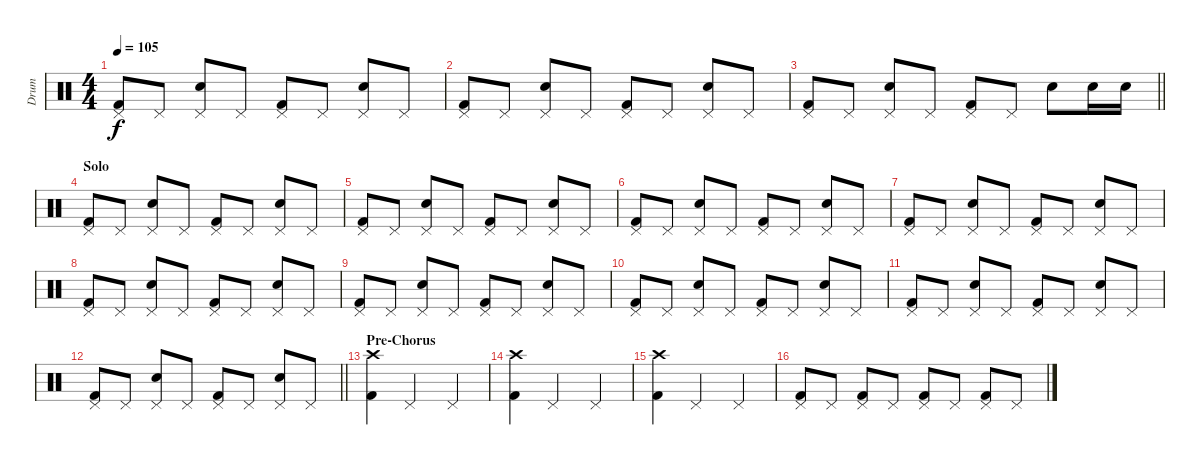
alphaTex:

\track ("Drum" "Drum") {instrument percussion}
\staff {score}
\articulation defaults
\ts (4 4)
\tempo 105
\clef neutral
\ks c
("Kick (hit) 2" "Pedal Hi-Hat (hit)").8{dy f} "Pedal Hi-Hat (hit)".8 ("Electric Snare (hit)" "Pedal Hi-Hat (hit)").8 "Pedal Hi-Hat (hit)".8 ("Kick (hit) 2" "Pedal Hi-Hat (hit)").8 "Pedal Hi-Hat (hit)".8 ("Electric Snare (hit)" "Pedal Hi-Hat (hit)").8 "Pedal Hi-Hat (hit)".8 |
("Kick (hit) 2" "Pedal Hi-Hat (hit)").8 "Pedal Hi-Hat (hit)".8 ("Electric Snare (hit)" "Pedal Hi-Hat (hit)").8 "Pedal Hi-Hat (hit)".8 ("Kick (hit) 2" "Pedal Hi-Hat (hit)").8 "Pedal Hi-Hat (hit)".8 ("Electric Snare (hit)" "Pedal Hi-Hat (hit)").8 "Pedal Hi-Hat (hit)".8 |
\barLineRight lightlight
("Kick (hit) 2" "Pedal Hi-Hat (hit)").8 "Pedal Hi-Hat (hit)".8 ("Electric Snare (hit)" "Pedal Hi-Hat (hit)").8 "Pedal Hi-Hat (hit)".8 ("Kick (hit) 2" "Pedal Hi-Hat (hit)").8 "Pedal Hi-Hat (hit)".8 "Electric Snare (hit)".8 "Electric Snare (hit)".16 "Electric Snare (hit)".16 |
\section ("" "Solo")
("Kick (hit) 2" "Pedal Hi-Hat (hit)").8 "Pedal Hi-Hat (hit)".8 ("Electric Snare (hit)" "Pedal Hi-Hat (hit)").8 "Pedal Hi-Hat (hit)".8 ("Kick (hit) 2" "Pedal Hi-Hat (hit)").8 "Pedal Hi-Hat (hit)".8 ("Electric Snare (hit)" "Pedal Hi-Hat (hit)").8 "Pedal Hi-Hat (hit)".8 |
("Kick (hit) 2" "Pedal Hi-Hat (hit)").8 "Pedal Hi-Hat (hit)".8 ("Electric Snare (hit)" "Pedal Hi-Hat (hit)").8 "Pedal Hi-Hat (hit)".8 ("Kick (hit) 2" "Pedal Hi-Hat (hit)").8 "Pedal Hi-Hat (hit)".8 ("Electric Snare (hit)" "Pedal Hi-Hat (hit)").8 "Pedal Hi-Hat (hit)".8 |
("Kick (hit) 2" "Pedal Hi-Hat (hit)").8 "Pedal Hi-Hat (hit)".8 ("Electric Snare (hit)" "Pedal Hi-Hat (hit)").8 "Pedal Hi-Hat (hit)".8 ("Kick (hit) 2" "Pedal Hi-Hat (hit)").8 "Pedal Hi-Hat (hit)".8 ("Electric Snare (hit)" "Pedal Hi-Hat (hit)").8 "Pedal Hi-Hat (hit)".8 |
("Kick (hit) 2" "Pedal Hi-Hat (hit)").8 "Pedal Hi-Hat (hit)".8 ("Electric Snare (hit)" "Pedal Hi-Hat (hit)").8 "Pedal Hi-Hat (hit)".8 ("Kick (hit) 2" "Pedal Hi-Hat (hit)").8 "Pedal Hi-Hat (hit)".8 ("Electric Snare (hit)" "Pedal Hi-Hat (hit)").8 "Pedal Hi-Hat (hit)".8 |
("Kick (hit) 2" "Pedal Hi-Hat (hit)").8 "Pedal Hi-Hat (hit)".8 ("Electric Snare (hit)" "Pedal Hi-Hat (hit)").8 "Pedal Hi-Hat (hit)".8 ("Kick (hit) 2" "Pedal Hi-Hat (hit)").8 "Pedal Hi-Hat (hit)".8 ("Electric Snare (hit)" "Pedal Hi-Hat (hit)").8 "Pedal Hi-Hat (hit)".8 |
("Kick (hit) 2" "Pedal Hi-Hat (hit)").8 "Pedal Hi-Hat (hit)".8 ("Electric Snare (hit)" "Pedal Hi-Hat (hit)").8 "Pedal Hi-Hat (hit)".8 ("Kick (hit) 2" "Pedal Hi-Hat (hit)").8 "Pedal Hi-Hat (hit)".8 ("Electric Snare (hit)" "Pedal Hi-Hat (hit)").8 "Pedal Hi-Hat (hit)".8 |
("Kick (hit) 2" "Pedal Hi-Hat (hit)").8 "Pedal Hi-Hat (hit)".8 ("Electric Snare (hit)" "Pedal Hi-Hat (hit)").8 "Pedal Hi-Hat (hit)".8 ("Kick (hit) 2" "Pedal Hi-Hat (hit)").8 "Pedal Hi-Hat (hit)".8 ("Electric Snare (hit)" "Pedal Hi-Hat (hit)").8 "Pedal Hi-Hat (hit)".8 |
("Kick (hit) 2" "Pedal Hi-Hat (hit)").8 "Pedal Hi-Hat (hit)".8 ("Electric Snare (hit)" "Pedal Hi-Hat (hit)").8 "Pedal Hi-Hat (hit)".8 ("Kick (hit) 2" "Pedal Hi-Hat (hit)").8 "Pedal Hi-Hat (hit)".8 ("Electric Snare (hit)" "Pedal Hi-Hat (hit)").8 "Pedal Hi-Hat (hit)".8 |
\barLineRight lightlight
("Kick (hit) 2" "Pedal Hi-Hat (hit)").8 "Pedal Hi-Hat (hit)".8 ("Electric Snare (hit)" "Pedal Hi-Hat (hit)").8 "Pedal Hi-Hat (hit)".8 ("Kick (hit) 2" "Pedal Hi-Hat (hit)").8 "Pedal Hi-Hat (hit)".8 ("Electric Snare (hit)" "Pedal Hi-Hat (hit)").8 "Pedal Hi-Hat (hit)".8 |
\section ("" "Pre-Chorus")
("Crash high (hit)" "Kick (hit) 2").4 "Pedal Hi-Hat (hit)".2 "Pedal Hi-Hat (hit)".4 |
("Crash high (hit)" "Kick (hit) 2").4 "Pedal Hi-Hat (hit)".2 "Pedal Hi-Hat (hit)".4 |
("Crash high (hit)" "Kick (hit) 2").4 "Pedal Hi-Hat (hit)".2 "Pedal Hi-Hat (hit)".4 |
("Pedal Hi-Hat (hit)" "Kick (hit) 2").8 "Pedal Hi-Hat (hit)".8 ("Pedal Hi-Hat (hit)" "Kick (hit) 2").8 "Pedal Hi-Hat (hit)".8 ("Pedal Hi-Hat (hit)" "Kick (hit) 2").8 "Pedal Hi-Hat (hit)".8 ("Pedal Hi-Hat (hit)" "Kick (hit) 2").8 "Pedal Hi-Hat (hit)".8
